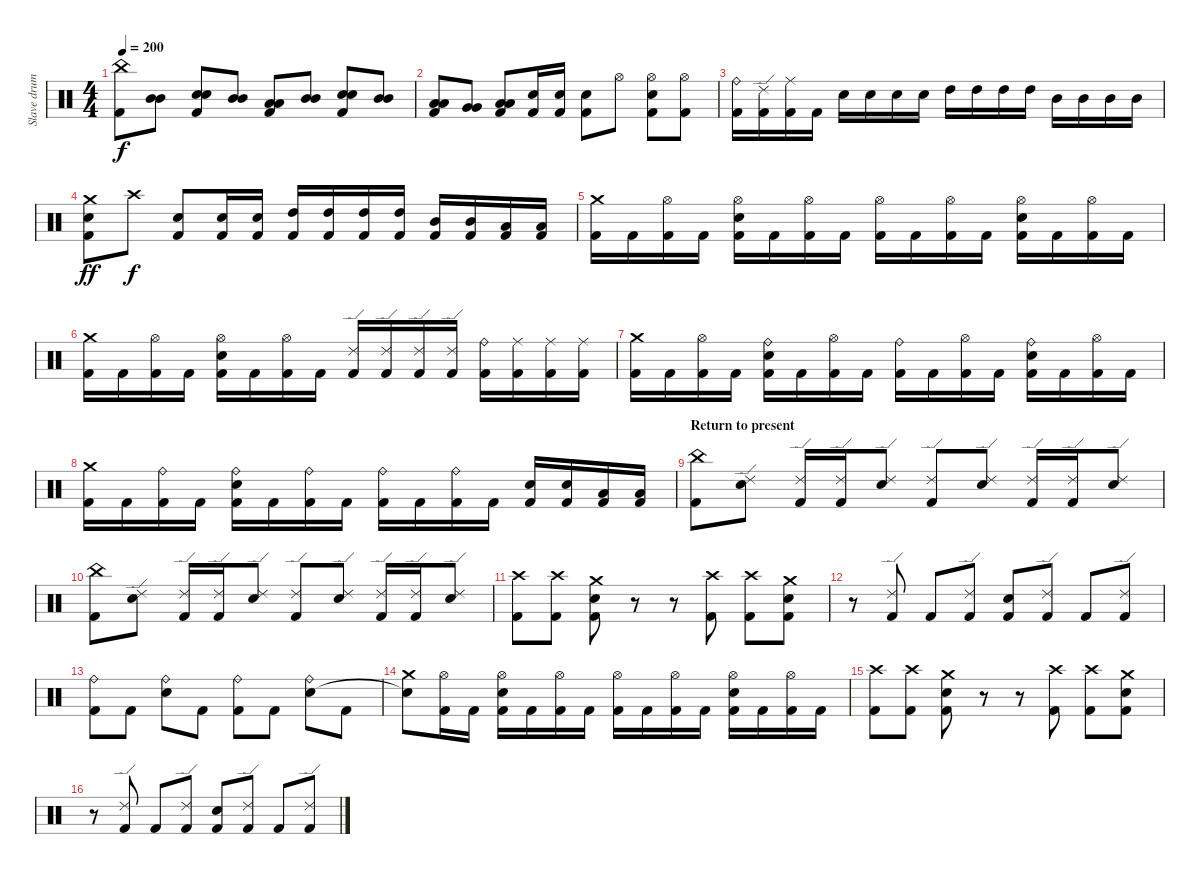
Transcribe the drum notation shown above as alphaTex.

\track ("Slave drum" "Slave drum") {instrument percussion}
\staff {score}
\articulation defaults
\ts (4 4)
\tempo 200
\clef neutral
\ks c
("China (hit)" "Kick (hit) 2").8{dy f} ("Mid Tom (hit)" "Mid Tom (hit)").8 ("Electric Snare (hit)" "Electric Snare (hit)" "Kick (hit) 2").8 ("Mid Tom (hit)" "Mid Tom (hit)").8 ("Low Tom (hit)" "Low Tom (hit)" "Kick (hit) 2").8 ("Mid Tom (hit)" "Mid Tom (hit)").8 ("Electric Snare (hit)" "Electric Snare (hit)" "Kick (hit) 2").8 ("Mid Tom (hit)" "Mid Tom (hit)").8 |
("Low Tom (hit)" "Low Tom (hit)" "Kick (hit) 2").8 ("Very Low Tom (hit)" "Very Low Tom (hit)").8 ("Low Floor Tom (hit)" "Low Floor Tom (hit)" "Kick (hit) 2").8 ("Electric Snare (hit)" "Kick (hit) 2").16 ("Electric Snare (hit)" "Kick (hit) 2").16 ("Electric Snare (hit)" "Kick (hit) 2").8 "Hi-Hat (open)".8 ("Hi-Hat (open)" "Electric Snare (hit)" "Kick (hit) 2").8 ("Hi-Hat (open)" "Kick (hit) 2").8 |
("Ride (bell)" "Kick (hit) 2").16 ("Ride (edge) 2" "Kick (hit) 2").16 ("Ride (middle)" "Kick (hit) 2").16 "Kick (hit) 2".16 "Electric Snare (hit)".16 "Electric Snare (hit)".16 "Electric Snare (hit)".16 "Electric Snare (hit)".16 "High Tom (hit)".16 "High Tom (hit)".16 "High Tom (hit)".16 "High Tom (hit)".16 "Mid Tom (hit)".16 "Mid Tom (hit)".16 "Mid Tom (hit)".16 "Mid Tom (hit)".16 |
("Crash medium (hit)" "Electric Snare (hit)" "Kick (hit) 2").8{dy ff} "Crash high (hit)".8{dy f} ("Electric Snare (hit)" "Kick (hit) 2").8 ("Electric Snare (hit)" "Kick (hit) 2").16 ("Electric Snare (hit)" "Kick (hit) 2").16 ("High Tom (hit)" "Kick (hit) 2").16 ("High Tom (hit)" "Kick (hit) 2").16 ("High Tom (hit)" "Kick (hit) 2").16 ("High Tom (hit)" "Kick (hit) 2").16 ("Mid Tom (hit)" "Kick (hit) 2").16 ("Mid Tom (hit)" "Kick (hit) 2").16 ("Low Tom (hit)" "Kick (hit) 2").16 ("Low Tom (hit)" "Kick (hit) 2").16 |
("Crash medium (hit)" "Kick (hit) 2").16 "Kick (hit) 2".16 ("Hi-Hat (open)" "Kick (hit) 2").16 "Kick (hit) 2".16 ("Hi-Hat (open)" "Electric Snare (hit)" "Kick (hit) 2").16 "Kick (hit) 2".16 ("Hi-Hat (open)" "Kick (hit) 2").16 "Kick (hit) 2".16 ("Hi-Hat (open)" "Kick (hit) 2").16 "Kick (hit) 2".16 ("Hi-Hat (open)" "Kick (hit) 2").16 "Kick (hit) 2".16 ("Hi-Hat (open)" "Electric Snare (hit)" "Kick (hit) 2").16 "Kick (hit) 2".16 ("Hi-Hat (open)" "Kick (hit) 2").16 "Kick (hit) 2".16 |
("Crash medium (hit)" "Kick (hit) 2").16 "Kick (hit) 2".16 ("Hi-Hat (open)" "Kick (hit) 2").16 "Kick (hit) 2".16 ("Hi-Hat (open)" "Electric Snare (hit)" "Kick (hit) 2").16 "Kick (hit) 2".16 ("Hi-Hat (open)" "Kick (hit) 2").16 "Kick (hit) 2".16 ("Ride (edge) 2" "Kick (hit) 2").16 ("Ride (edge) 2" "Kick (hit) 2").16 ("Ride (edge) 2" "Kick (hit) 2").16 ("Ride (edge) 2" "Kick (hit) 2").16 ("Ride (bell)" "Kick (hit) 2").16 ("Ride (middle)" "Kick (hit) 2").16 ("Ride (middle)" "Kick (hit) 2").16 ("Ride (middle)" "Kick (hit) 2").16 |
("Crash medium (hit)" "Kick (hit) 2").16 "Kick (hit) 2".16 ("Hi-Hat (open)" "Kick (hit) 2").16 "Kick (hit) 2".16 ("Ride (bell)" "Electric Snare (hit)" "Kick (hit) 2").16 "Kick (hit) 2".16 ("Hi-Hat (open)" "Kick (hit) 2").16 "Kick (hit) 2".16 ("Ride (bell)" "Kick (hit) 2").16 "Kick (hit) 2".16 ("Hi-Hat (open)" "Kick (hit) 2").16 "Kick (hit) 2".16 ("Ride (bell)" "Electric Snare (hit)" "Kick (hit) 2").16 "Kick (hit) 2".16 ("Hi-Hat (open)" "Kick (hit) 2").16 "Kick (hit) 2".16 |
("Crash medium (hit)" "Kick (hit) 2").16 "Kick (hit) 2".16 ("Ride (bell)" "Kick (hit) 2").16 "Kick (hit) 2".16 ("Ride (bell)" "Electric Snare (hit)" "Kick (hit) 2").16 "Kick (hit) 2".16 ("Ride (bell)" "Kick (hit) 2").16 "Kick (hit) 2".16 ("Ride (bell)" "Kick (hit) 2").16 "Kick (hit) 2".16 ("Ride (bell)" "Kick (hit) 2").16 "Kick (hit) 2".16 ("Electric Snare (hit)" "Kick (hit) 2").16 ("Electric Snare (hit)" "Kick (hit) 2").16 ("Low Tom (hit)" "Kick (hit) 2").16 ("Low Tom (hit)" "Kick (hit) 2").16 |
\section ("" "Return to present")
("China (hit)" "Kick (hit) 2").8 ("Ride (edge) 2" "Electric Snare (hit)").8 ("Ride (edge) 2" "Kick (hit) 2").16 ("Ride (edge) 2" "Kick (hit) 2").16 ("Ride (edge) 2" "Electric Snare (hit)").8 ("Ride (edge) 2" "Kick (hit) 2").8 ("Ride (edge) 2" "Electric Snare (hit)").8 ("Ride (edge) 2" "Kick (hit) 2").16 ("Ride (edge) 2" "Kick (hit) 2").16 ("Ride (edge) 2" "Electric Snare (hit)").8 |
("China (hit)" "Kick (hit) 2").8 ("Ride (edge) 2" "Electric Snare (hit)").8 ("Ride (edge) 2" "Kick (hit) 2").16 ("Ride (edge) 2" "Kick (hit) 2").16 ("Ride (edge) 2" "Electric Snare (hit)").8 ("Ride (edge) 2" "Kick (hit) 2").8 ("Ride (edge) 2" "Electric Snare (hit)").8 ("Ride (edge) 2" "Kick (hit) 2").16 ("Ride (edge) 2" "Kick (hit) 2").16 ("Ride (edge) 2" "Electric Snare (hit)").8 |
("Crash high (hit)" "Kick (hit) 2").8 ("Crash high (hit)" "Kick (hit) 2").8 ("Crash medium (hit)" "Electric Snare (hit)" "Kick (hit) 2").8 r.8 r.8 ("Crash high (hit)" "Kick (hit) 2").8 ("Crash high (hit)" "Kick (hit) 2").8 ("Crash medium (hit)" "Electric Snare (hit)" "Kick (hit) 2").8 |
r.8 ("Ride (edge) 2" "Kick (hit) 2").8 "Kick (hit) 2".8 ("Ride (edge) 2" "Kick (hit) 2").8 ("Electric Snare (hit)" "Kick (hit) 2").8 ("Ride (edge) 2" "Kick (hit) 2").8 "Kick (hit) 2".8 ("Ride (edge) 2" "Kick (hit) 2").8 |
("Ride (bell)" "Kick (hit) 2").8 "Kick (hit) 2".8 ("Ride (bell)" "Electric Snare (hit)").8 "Kick (hit) 2".8 ("Ride (bell)" "Kick (hit) 2").8 "Kick (hit) 2".8 ("Ride (bell)" "Electric Snare (hit)").8 "Kick (hit) 2".8 |
("Crash medium (hit)" "Snare (hit)"{t}).8 ("Hi-Hat (open)" "Kick (hit) 2").16 "Kick (hit) 2".16 ("Hi-Hat (open)" "Electric Snare (hit)" "Kick (hit) 2").16 "Kick (hit) 2".16 ("Hi-Hat (open)" "Kick (hit) 2").16 "Kick (hit) 2".16 ("Hi-Hat (open)" "Kick (hit) 2").16 "Kick (hit) 2".16 ("Hi-Hat (open)" "Kick (hit) 2").16 "Kick (hit) 2".16 ("Hi-Hat (open)" "Electric Snare (hit)" "Kick (hit) 2").16 "Kick (hit) 2".16 ("Hi-Hat (open)" "Kick (hit) 2").16 "Kick (hit) 2".16 |
("Crash high (hit)" "Kick (hit) 2").8 ("Crash high (hit)" "Kick (hit) 2").8 ("Crash medium (hit)" "Electric Snare (hit)" "Kick (hit) 2").8 r.8 r.8 ("Crash high (hit)" "Kick (hit) 2").8 ("Crash high (hit)" "Kick (hit) 2").8 ("Crash medium (hit)" "Electric Snare (hit)" "Kick (hit) 2").8 |
r.8 ("Ride (edge) 2" "Kick (hit) 2").8 "Kick (hit) 2".8 ("Ride (edge) 2" "Kick (hit) 2").8 ("Electric Snare (hit)" "Kick (hit) 2").8 ("Ride (edge) 2" "Kick (hit) 2").8 "Kick (hit) 2".8 ("Ride (edge) 2" "Kick (hit) 2").8
